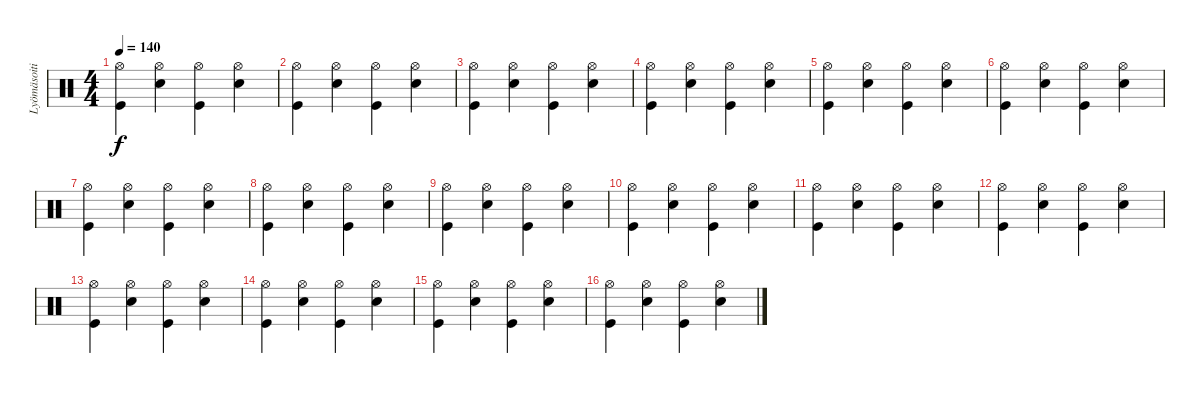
\track ("Lyömäsoitin" "Lyömäsoiti") {instrument percussion}
\staff {score}
\articulation defaults
\ts (4 4)
\tempo 140
\clef neutral
\ks c
("Kick (hit)" "Hi-Hat (open)").4{dy f} ("Electric Snare (hit)" "Hi-Hat (open)").4 ("Kick (hit)" "Hi-Hat (open)").4 ("Electric Snare (hit)" "Hi-Hat (open)").4 |
("Kick (hit)" "Hi-Hat (open)").4 ("Electric Snare (hit)" "Hi-Hat (open)").4 ("Kick (hit)" "Hi-Hat (open)").4 ("Electric Snare (hit)" "Hi-Hat (open)").4 |
("Kick (hit)" "Hi-Hat (open)").4 ("Electric Snare (hit)" "Hi-Hat (open)").4 ("Kick (hit)" "Hi-Hat (open)").4 ("Electric Snare (hit)" "Hi-Hat (open)").4 |
("Kick (hit)" "Hi-Hat (open)").4 ("Electric Snare (hit)" "Hi-Hat (open)").4 ("Kick (hit)" "Hi-Hat (open)").4 ("Electric Snare (hit)" "Hi-Hat (open)").4 |
("Kick (hit)" "Hi-Hat (open)").4 ("Electric Snare (hit)" "Hi-Hat (open)").4 ("Kick (hit)" "Hi-Hat (open)").4 ("Electric Snare (hit)" "Hi-Hat (open)").4 |
("Kick (hit)" "Hi-Hat (open)").4 ("Electric Snare (hit)" "Hi-Hat (open)").4 ("Kick (hit)" "Hi-Hat (open)").4 ("Electric Snare (hit)" "Hi-Hat (open)").4 |
("Kick (hit)" "Hi-Hat (open)").4 ("Electric Snare (hit)" "Hi-Hat (open)").4 ("Kick (hit)" "Hi-Hat (open)").4 ("Electric Snare (hit)" "Hi-Hat (open)").4 |
("Kick (hit)" "Hi-Hat (open)").4 ("Electric Snare (hit)" "Hi-Hat (open)").4 ("Kick (hit)" "Hi-Hat (open)").4 ("Electric Snare (hit)" "Hi-Hat (open)").4 |
("Kick (hit)" "Hi-Hat (open)").4 ("Electric Snare (hit)" "Hi-Hat (open)").4 ("Kick (hit)" "Hi-Hat (open)").4 ("Electric Snare (hit)" "Hi-Hat (open)").4 |
("Kick (hit)" "Hi-Hat (open)").4 ("Electric Snare (hit)" "Hi-Hat (open)").4 ("Kick (hit)" "Hi-Hat (open)").4 ("Electric Snare (hit)" "Hi-Hat (open)").4 |
("Kick (hit)" "Hi-Hat (open)").4 ("Electric Snare (hit)" "Hi-Hat (open)").4 ("Kick (hit)" "Hi-Hat (open)").4 ("Electric Snare (hit)" "Hi-Hat (open)").4 |
("Kick (hit)" "Hi-Hat (open)").4 ("Electric Snare (hit)" "Hi-Hat (open)").4 ("Kick (hit)" "Hi-Hat (open)").4 ("Electric Snare (hit)" "Hi-Hat (open)").4 |
("Kick (hit)" "Hi-Hat (open)").4 ("Electric Snare (hit)" "Hi-Hat (open)").4 ("Kick (hit)" "Hi-Hat (open)").4 ("Electric Snare (hit)" "Hi-Hat (open)").4 |
("Kick (hit)" "Hi-Hat (open)").4 ("Electric Snare (hit)" "Hi-Hat (open)").4 ("Kick (hit)" "Hi-Hat (open)").4 ("Electric Snare (hit)" "Hi-Hat (open)").4 |
("Kick (hit)" "Hi-Hat (open)").4 ("Electric Snare (hit)" "Hi-Hat (open)").4 ("Kick (hit)" "Hi-Hat (open)").4 ("Electric Snare (hit)" "Hi-Hat (open)").4 |
("Kick (hit)" "Hi-Hat (open)").4 ("Electric Snare (hit)" "Hi-Hat (open)").4 ("Kick (hit)" "Hi-Hat (open)").4 ("Electric Snare (hit)" "Hi-Hat (open)").4
